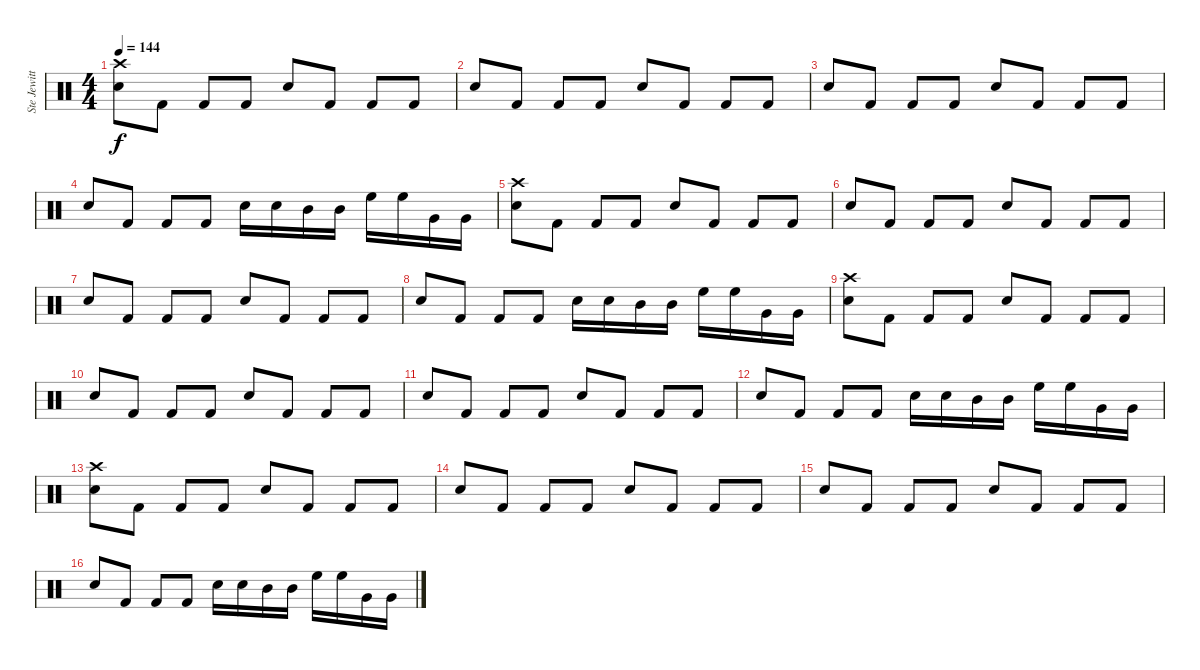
\track ("Ste Jewitt (Drummer)" "Ste Jewitt") {instrument percussion}
\staff {score}
\articulation defaults
\ts (4 4)
\tempo 144
\clef neutral
\ks c
("Crash high (hit)" "Snare (hit) 2").8{dy f} "Kick (hit) 2".8 "Kick (hit) 2".8 "Kick (hit) 2".8 "Snare (hit) 2".8 "Kick (hit) 2".8 "Kick (hit) 2".8 "Kick (hit) 2".8 |
"Snare (hit) 2".8 "Kick (hit) 2".8 "Kick (hit) 2".8 "Kick (hit) 2".8 "Snare (hit) 2".8 "Kick (hit) 2".8 "Kick (hit) 2".8 "Kick (hit) 2".8 |
"Snare (hit) 2".8 "Kick (hit) 2".8 "Kick (hit) 2".8 "Kick (hit) 2".8 "Snare (hit) 2".8 "Kick (hit) 2".8 "Kick (hit) 2".8 "Kick (hit) 2".8 |
"Snare (hit) 2".8 "Kick (hit) 2".8 "Kick (hit) 2".8 "Kick (hit) 2".8 "Snare (hit) 2".16 "Snare (hit) 2".16 "Mid Tom (hit)".16 "Mid Tom (hit)".16 "High Floor Tom (hit)".16 "High Floor Tom (hit)".16 "Very Low Tom (hit)".16 "Very Low Tom (hit)".16 |
("Crash high (hit)" "Snare (hit) 2").8 "Kick (hit) 2".8 "Kick (hit) 2".8 "Kick (hit) 2".8 "Snare (hit) 2".8 "Kick (hit) 2".8 "Kick (hit) 2".8 "Kick (hit) 2".8 |
"Snare (hit) 2".8 "Kick (hit) 2".8 "Kick (hit) 2".8 "Kick (hit) 2".8 "Snare (hit) 2".8 "Kick (hit) 2".8 "Kick (hit) 2".8 "Kick (hit) 2".8 |
"Snare (hit) 2".8 "Kick (hit) 2".8 "Kick (hit) 2".8 "Kick (hit) 2".8 "Snare (hit) 2".8 "Kick (hit) 2".8 "Kick (hit) 2".8 "Kick (hit) 2".8 |
"Snare (hit) 2".8 "Kick (hit) 2".8 "Kick (hit) 2".8 "Kick (hit) 2".8 "Snare (hit) 2".16 "Snare (hit) 2".16 "Mid Tom (hit)".16 "Mid Tom (hit)".16 "High Floor Tom (hit)".16 "High Floor Tom (hit)".16 "Very Low Tom (hit)".16 "Very Low Tom (hit)".16 |
("Crash high (hit)" "Snare (hit) 2").8 "Kick (hit) 2".8 "Kick (hit) 2".8 "Kick (hit) 2".8 "Snare (hit) 2".8 "Kick (hit) 2".8 "Kick (hit) 2".8 "Kick (hit) 2".8 |
"Snare (hit) 2".8 "Kick (hit) 2".8 "Kick (hit) 2".8 "Kick (hit) 2".8 "Snare (hit) 2".8 "Kick (hit) 2".8 "Kick (hit) 2".8 "Kick (hit) 2".8 |
"Snare (hit) 2".8 "Kick (hit) 2".8 "Kick (hit) 2".8 "Kick (hit) 2".8 "Snare (hit) 2".8 "Kick (hit) 2".8 "Kick (hit) 2".8 "Kick (hit) 2".8 |
"Snare (hit) 2".8 "Kick (hit) 2".8 "Kick (hit) 2".8 "Kick (hit) 2".8 "Snare (hit) 2".16 "Snare (hit) 2".16 "Mid Tom (hit)".16 "Mid Tom (hit)".16 "High Floor Tom (hit)".16 "High Floor Tom (hit)".16 "Very Low Tom (hit)".16 "Very Low Tom (hit)".16 |
("Crash high (hit)" "Snare (hit) 2").8 "Kick (hit) 2".8 "Kick (hit) 2".8 "Kick (hit) 2".8 "Snare (hit) 2".8 "Kick (hit) 2".8 "Kick (hit) 2".8 "Kick (hit) 2".8 |
"Snare (hit) 2".8 "Kick (hit) 2".8 "Kick (hit) 2".8 "Kick (hit) 2".8 "Snare (hit) 2".8 "Kick (hit) 2".8 "Kick (hit) 2".8 "Kick (hit) 2".8 |
"Snare (hit) 2".8 "Kick (hit) 2".8 "Kick (hit) 2".8 "Kick (hit) 2".8 "Snare (hit) 2".8 "Kick (hit) 2".8 "Kick (hit) 2".8 "Kick (hit) 2".8 |
"Snare (hit) 2".8 "Kick (hit) 2".8 "Kick (hit) 2".8 "Kick (hit) 2".8 "Snare (hit) 2".16 "Snare (hit) 2".16 "Mid Tom (hit)".16 "Mid Tom (hit)".16 "High Floor Tom (hit)".16 "High Floor Tom (hit)".16 "Very Low Tom (hit)".16 "Very Low Tom (hit)".16
